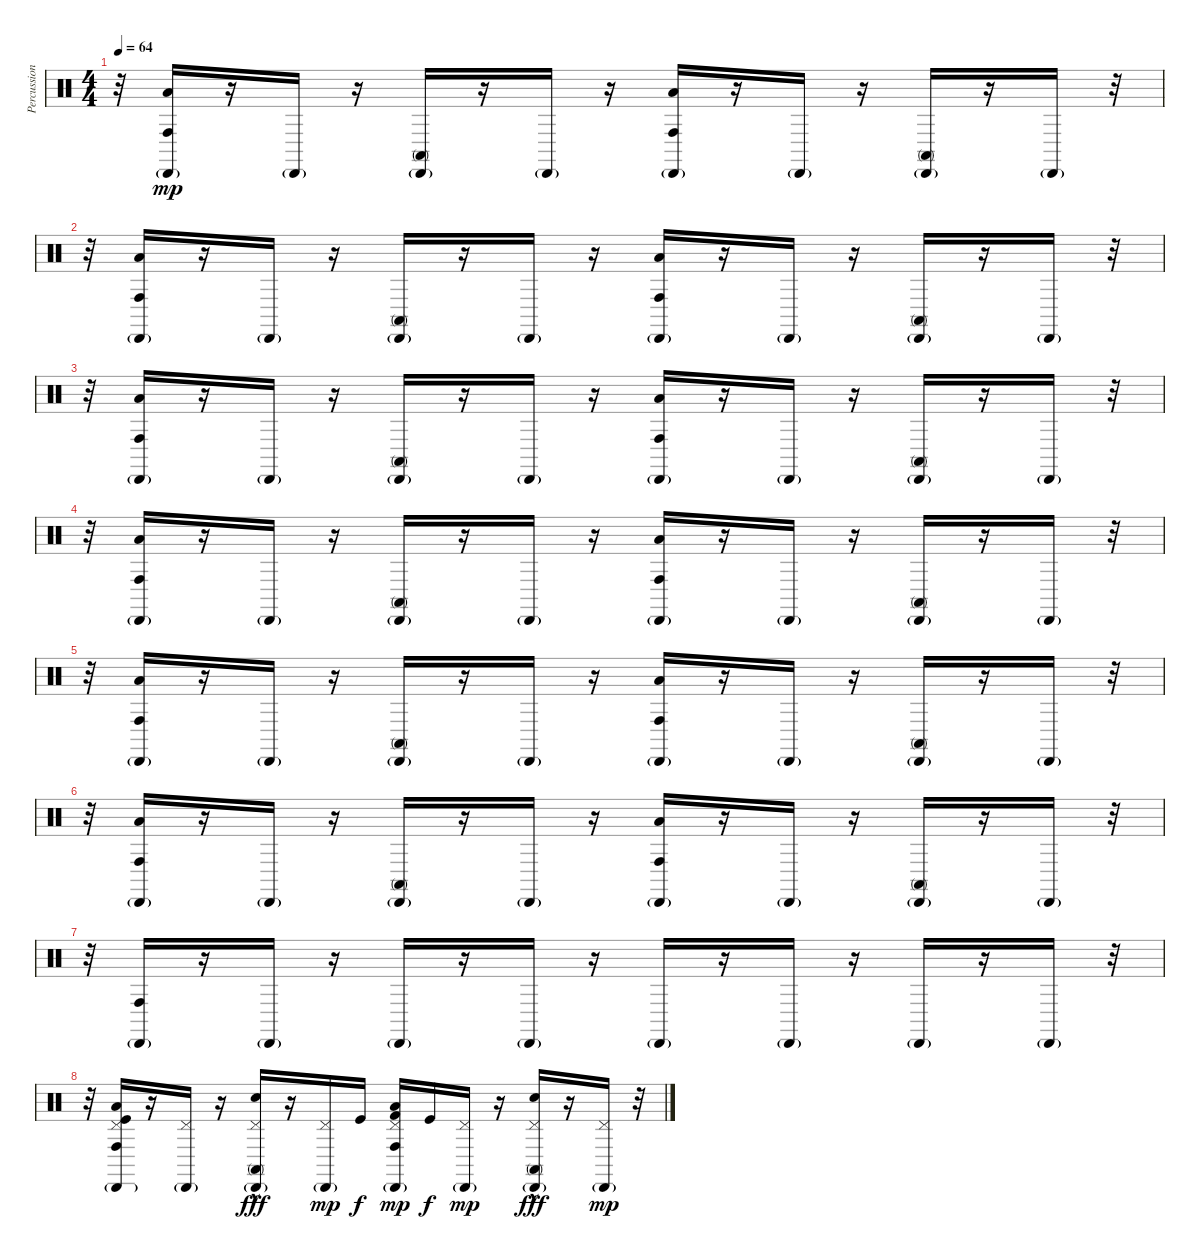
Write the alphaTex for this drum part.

\track ("Percussion" "Percussion") {instrument percussion}
\staff {score}
\articulation defaults
\ts (4 4)
\tempo 64
\clef neutral
\ks c
r.32{dy mp} ("Cabasa (hit)"{g} "Low Floor Tom (hit)" "Conga high (hit)").16 r.16 "Cabasa (hit)"{g}.16 r.16 ("Cabasa (hit)"{g} "Conga high (mute)").16 r.16 "Cabasa (hit)"{g}.16 r.16 ("Cabasa (hit)"{g} "Low Floor Tom (hit)" "Conga high (hit)").16 r.16 "Cabasa (hit)"{g}.16 r.16 ("Cabasa (hit)"{g} "Conga high (mute)").16 r.16 "Cabasa (hit)"{g}.16 r.32 |
r.32 ("Cabasa (hit)"{g} "Low Floor Tom (hit)" "Conga high (hit)").16 r.16 "Cabasa (hit)"{g}.16 r.16 ("Cabasa (hit)"{g} "Conga high (mute)").16 r.16 "Cabasa (hit)"{g}.16 r.16 ("Cabasa (hit)"{g} "Low Floor Tom (hit)" "Conga high (hit)").16 r.16 "Cabasa (hit)"{g}.16 r.16 ("Cabasa (hit)"{g} "Conga high (mute)").16 r.16 "Cabasa (hit)"{g}.16 r.32 |
r.32 ("Cabasa (hit)"{g} "Low Floor Tom (hit)" "Conga high (hit)").16 r.16 "Cabasa (hit)"{g}.16 r.16 ("Cabasa (hit)"{g} "Conga high (mute)").16 r.16 "Cabasa (hit)"{g}.16 r.16 ("Cabasa (hit)"{g} "Low Floor Tom (hit)" "Conga high (hit)").16 r.16 "Cabasa (hit)"{g}.16 r.16 ("Cabasa (hit)"{g} "Conga high (mute)").16 r.16 "Cabasa (hit)"{g}.16 r.32 |
r.32 ("Cabasa (hit)"{g} "Low Floor Tom (hit)" "Conga high (hit)").16 r.16 "Cabasa (hit)"{g}.16 r.16 ("Cabasa (hit)"{g} "Conga high (mute)").16 r.16 "Cabasa (hit)"{g}.16 r.16 ("Cabasa (hit)"{g} "Low Floor Tom (hit)" "Conga high (hit)").16 r.16 "Cabasa (hit)"{g}.16 r.16 ("Cabasa (hit)"{g} "Conga high (mute)").16 r.16 "Cabasa (hit)"{g}.16 r.32 |
r.32 ("Cabasa (hit)"{g} "Low Floor Tom (hit)" "Conga high (hit)").16 r.16 "Cabasa (hit)"{g}.16 r.16 ("Cabasa (hit)"{g} "Conga high (mute)").16 r.16 "Cabasa (hit)"{g}.16 r.16 ("Cabasa (hit)"{g} "Low Floor Tom (hit)" "Conga high (hit)").16 r.16 "Cabasa (hit)"{g}.16 r.16 ("Cabasa (hit)"{g} "Conga high (mute)").16 r.16 "Cabasa (hit)"{g}.16 r.32 |
r.32 ("Cabasa (hit)"{g} "Low Floor Tom (hit)" "Conga high (hit)").16 r.16 "Cabasa (hit)"{g}.16 r.16 ("Cabasa (hit)"{g} "Conga high (mute)").16 r.16 "Cabasa (hit)"{g}.16 r.16 ("Cabasa (hit)"{g} "Low Floor Tom (hit)" "Conga high (hit)").16 r.16 "Cabasa (hit)"{g}.16 r.16 ("Cabasa (hit)"{g} "Conga high (mute)").16 r.16 "Cabasa (hit)"{g}.16 r.32 |
r.32 ("Cabasa (hit)"{g} "Conga high (hit)").16 r.16 "Cabasa (hit)"{g}.16 r.16 "Cabasa (hit)"{g}.16 r.16 "Cabasa (hit)"{g}.16 r.16 "Cabasa (hit)"{g}.16 r.16 "Cabasa (hit)"{g}.16 r.16 "Cabasa (hit)"{g}.16 r.16 "Cabasa (hit)"{g}.16 r.32 |
r.32 ("Cabasa (hit)"{g} "Pedal Hi-Hat (hit)" "Low Floor Tom (hit)" "Conga high (hit)" "Kick (hit)").16 r.16 ("Cabasa (hit)"{g} "Pedal Hi-Hat (hit)").16 r.16 ("Cabasa (hit)"{g} "Pedal Hi-Hat (hit)" "Snare (hit) 2"{hac} "Conga high (mute)").16{dy fff} r.16 ("Cabasa (hit)"{g} "Pedal Hi-Hat (hit)").16{dy mp} "Kick (hit)".16{dy f} ("Cabasa (hit)"{g} "Pedal Hi-Hat (hit)" "Low Floor Tom (hit)" "Conga high (hit)" "Kick (hit) 2").16{dy mp} "Kick (hit)".16{dy f} ("Cabasa (hit)"{g} "Pedal Hi-Hat (hit)").16{dy mp} r.16 ("Cabasa (hit)"{g} "Pedal Hi-Hat (hit)" "Snare (hit) 2"{hac} "Conga high (mute)").16{dy fff} r.16 ("Cabasa (hit)"{g} "Pedal Hi-Hat (hit)").16{dy mp} r.32
